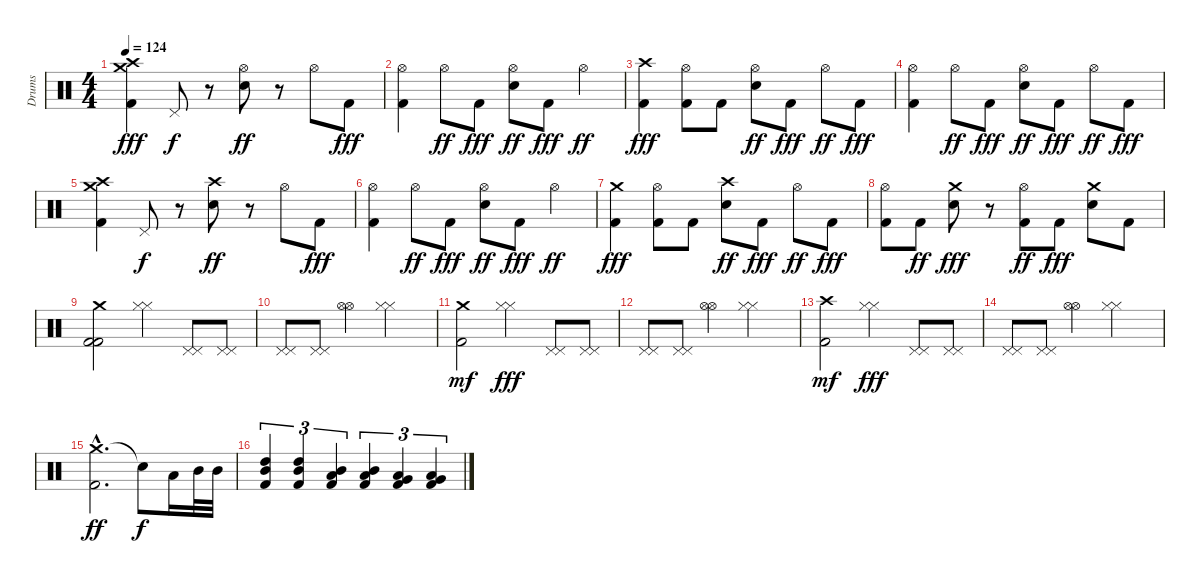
\track ("Drums" "Drums") {instrument percussion}
\staff {score}
\articulation defaults
\ts (4 4)
\tempo 124
\clef neutral
\ks c
("Crash medium (hit)" "Crash high (hit)" "Kick (hit) 2").4{dy fff} "Pedal Hi-Hat (hit)".8{dy f} r.8 ("Hi-Hat (open)" "Snare (hit) 2").8{dy ff} r.8 "Hi-Hat (open)".8 "Kick (hit) 2".8{dy fff} |
("Hi-Hat (open)" "Kick (hit) 2").4 "Hi-Hat (open)".8{dy ff} "Kick (hit) 2".8{dy fff} ("Hi-Hat (open)" "Snare (hit) 2").8{dy ff} "Kick (hit) 2".8{dy fff} "Hi-Hat (open)".4{dy ff} |
("Crash high (hit)" "Kick (hit) 2").4{dy fff} ("Hi-Hat (open)" "Kick (hit) 2").8 "Kick (hit) 2".8 ("Hi-Hat (open)" "Snare (hit) 2").8{dy ff} "Kick (hit) 2".8{dy fff} "Hi-Hat (open)".8{dy ff} "Kick (hit) 2".8{dy fff} |
("Hi-Hat (open)" "Kick (hit) 2").4 "Hi-Hat (open)".8{dy ff} "Kick (hit) 2".8{dy fff} ("Hi-Hat (open)" "Snare (hit) 2").8{dy ff} "Kick (hit) 2".8{dy fff} "Hi-Hat (open)".8{dy ff} "Kick (hit) 2".8{dy fff} |
("Crash medium (hit)" "Crash high (hit)" "Kick (hit) 2").4 "Pedal Hi-Hat (hit)".8{dy f} r.8 ("Crash high (hit)" "Snare (hit) 2").8{dy ff} r.8 "Hi-Hat (open)".8 "Kick (hit) 2".8{dy fff} |
("Hi-Hat (open)" "Kick (hit) 2").4 "Hi-Hat (open)".8{dy ff} "Kick (hit) 2".8{dy fff} ("Hi-Hat (open)" "Snare (hit) 2").8{dy ff} "Kick (hit) 2".8{dy fff} "Hi-Hat (open)".4{dy ff} |
("Crash medium (hit)" "Kick (hit) 2").4{dy fff} ("Hi-Hat (open)" "Kick (hit) 2").8 "Kick (hit) 2".8 ("Crash high (hit)" "Snare (hit) 2").8{dy ff} "Kick (hit) 2".8{dy fff} "Hi-Hat (open)".8{dy ff} "Kick (hit) 2".8{dy fff} |
("Hi-Hat (open)" "Kick (hit) 2").8 "Kick (hit) 2".8{dy ff} ("Crash medium (hit)" "Snare (hit) 2").8{dy fff} r.8 ("Hi-Hat (open)" "Kick (hit) 2").8{dy ff} "Kick (hit) 2".8{dy fff} ("Crash medium (hit)" "Snare (hit) 2").8 "Kick (hit) 2".8 |
("Crash medium (hit)" "Kick (hit) 2" "Kick (hit) 2").2 ("Hi-Hat (closed)" "Hi-Hat (closed)").4 ("Pedal Hi-Hat (hit)" "Pedal Hi-Hat (hit)").8 ("Pedal Hi-Hat (hit)" "Pedal Hi-Hat (hit)").8 |
("Pedal Hi-Hat (hit)" "Pedal Hi-Hat (hit)").8 ("Pedal Hi-Hat (hit)" "Pedal Hi-Hat (hit)").8 ("Hi-Hat (open)" "Hi-Hat (open)").4 ("Hi-Hat (closed)" "Hi-Hat (closed)").2 |
("Crash medium (hit)" "Kick (hit) 2").2{dy mf balance 0} ("Hi-Hat (closed)" "Hi-Hat (closed)").4{dy fff balance 8} ("Pedal Hi-Hat (hit)" "Pedal Hi-Hat (hit)").8 ("Pedal Hi-Hat (hit)" "Pedal Hi-Hat (hit)").8 |
("Pedal Hi-Hat (hit)" "Pedal Hi-Hat (hit)").8 ("Pedal Hi-Hat (hit)" "Pedal Hi-Hat (hit)").8 ("Hi-Hat (open)" "Hi-Hat (open)").4 ("Hi-Hat (closed)" "Hi-Hat (closed)").2 |
("Crash high (hit)" "Kick (hit) 2").2{dy mf balance 16} ("Hi-Hat (closed)" "Hi-Hat (closed)").4{dy fff balance 8} ("Pedal Hi-Hat (hit)" "Pedal Hi-Hat (hit)").8 ("Pedal Hi-Hat (hit)" "Pedal Hi-Hat (hit)").8 |
("Pedal Hi-Hat (hit)" "Pedal Hi-Hat (hit)").8 ("Pedal Hi-Hat (hit)" "Pedal Hi-Hat (hit)").8 ("Hi-Hat (open)" "Hi-Hat (open)").4 ("Hi-Hat (closed)" "Hi-Hat (closed)").2 |
("Crash medium (hit)"{hac} "Kick (hit) 2"{hac}).2{d dy ff balance 0} "Snare (hit)"{t}.8{dy f} "Low Tom (hit)".16 "Mid Tom (hit)".32 "Mid Tom (hit)".32 |
("High Tom (hit)" "Mid Tom (hit)" "Kick (hit) 2").4{tu (3 2) bd 60} ("High Tom (hit)" "Mid Tom (hit)" "Kick (hit) 2").4{tu (3 2) bd 60} ("Mid Tom (hit)" "Low Tom (hit)" "Kick (hit) 2").4{tu (3 2) bd 60} ("Mid Tom (hit)" "Low Tom (hit)" "Kick (hit) 2").4{tu (3 2) bd 60} ("Low Tom (hit)" "Very Low Tom (hit)" "Kick (hit) 2").4{tu (3 2) bd 60} ("Low Tom (hit)" "Very Low Tom (hit)" "Kick (hit) 2").4{tu (3 2) bd 60}
